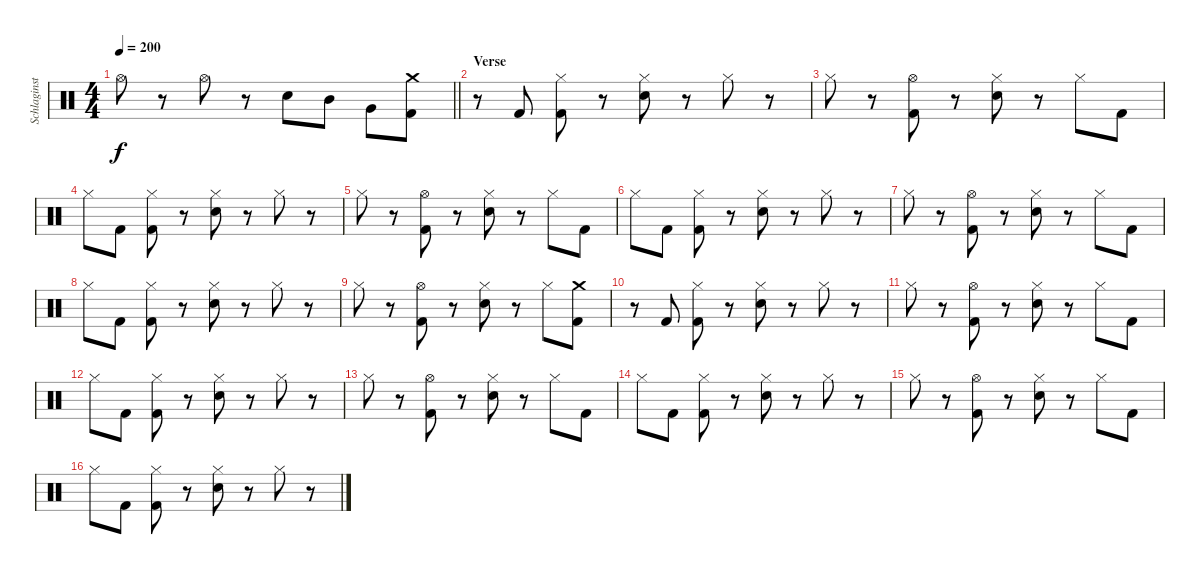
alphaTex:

\track ("Schlaginstrumente - Auswahl" "Schlaginst") {instrument percussion}
\staff {score}
\articulation defaults
\ts (4 4)
\tempo 200
\clef neutral
\barLineRight lightlight
\ks c "Hi-Hat (open)".8{dy f}
r.8 "Hi-Hat (open)".8 r.8 "Electric Snare (hit)".8 "Mid Tom (hit)".8 "Very Low Tom (hit)".8 ("Crash medium (hit)" "Kick (hit) 2").8 |
\section ("" "Verse")
r.8 "Kick (hit) 2".8 ("Hi-Hat (closed)" "Kick (hit) 2").8 r.8 ("Hi-Hat (closed)" "Electric Snare (hit)").8 r.8 "Hi-Hat (closed)".8 r.8 |
"Hi-Hat (closed)".8 r.8 ("Hi-Hat (open)" "Kick (hit) 2").8 r.8 ("Hi-Hat (closed)" "Electric Snare (hit)").8 r.8 "Hi-Hat (closed)".8 "Kick (hit) 2".8 |
"Hi-Hat (closed)".8 "Kick (hit) 2".8 ("Hi-Hat (closed)" "Kick (hit) 2").8 r.8 ("Hi-Hat (closed)" "Electric Snare (hit)").8 r.8 "Hi-Hat (closed)".8 r.8 |
"Hi-Hat (closed)".8 r.8 ("Hi-Hat (open)" "Kick (hit) 2").8 r.8 ("Hi-Hat (closed)" "Electric Snare (hit)").8 r.8 "Hi-Hat (closed)".8 "Kick (hit) 2".8 |
"Hi-Hat (closed)".8 "Kick (hit) 2".8 ("Hi-Hat (closed)" "Kick (hit) 2").8 r.8 ("Hi-Hat (closed)" "Electric Snare (hit)").8 r.8 "Hi-Hat (closed)".8 r.8 |
"Hi-Hat (closed)".8 r.8 ("Hi-Hat (open)" "Kick (hit) 2").8 r.8 ("Hi-Hat (closed)" "Electric Snare (hit)").8 r.8 "Hi-Hat (closed)".8 "Kick (hit) 2".8 |
"Hi-Hat (closed)".8 "Kick (hit) 2".8 ("Hi-Hat (closed)" "Kick (hit) 2").8 r.8 ("Hi-Hat (closed)" "Electric Snare (hit)").8 r.8 "Hi-Hat (closed)".8 r.8 |
"Hi-Hat (closed)".8 r.8 ("Hi-Hat (open)" "Kick (hit) 2").8 r.8 ("Hi-Hat (closed)" "Electric Snare (hit)").8 r.8 "Hi-Hat (closed)".8 ("Crash medium (hit)" "Kick (hit) 2").8 |
r.8 "Kick (hit) 2".8 ("Hi-Hat (closed)" "Kick (hit) 2").8 r.8 ("Hi-Hat (closed)" "Electric Snare (hit)").8 r.8 "Hi-Hat (closed)".8 r.8 |
"Hi-Hat (closed)".8 r.8 ("Hi-Hat (open)" "Kick (hit) 2").8 r.8 ("Hi-Hat (closed)" "Electric Snare (hit)").8 r.8 "Hi-Hat (closed)".8 "Kick (hit) 2".8 |
"Hi-Hat (closed)".8 "Kick (hit) 2".8 ("Hi-Hat (closed)" "Kick (hit) 2").8 r.8 ("Hi-Hat (closed)" "Electric Snare (hit)").8 r.8 "Hi-Hat (closed)".8 r.8 |
"Hi-Hat (closed)".8 r.8 ("Hi-Hat (open)" "Kick (hit) 2").8 r.8 ("Hi-Hat (closed)" "Electric Snare (hit)").8 r.8 "Hi-Hat (closed)".8 "Kick (hit) 2".8 |
"Hi-Hat (closed)".8 "Kick (hit) 2".8 ("Hi-Hat (closed)" "Kick (hit) 2").8 r.8 ("Hi-Hat (closed)" "Electric Snare (hit)").8 r.8 "Hi-Hat (closed)".8 r.8 |
"Hi-Hat (closed)".8 r.8 ("Hi-Hat (open)" "Kick (hit) 2").8 r.8 ("Hi-Hat (closed)" "Electric Snare (hit)").8 r.8 "Hi-Hat (closed)".8 "Kick (hit) 2".8 |
"Hi-Hat (closed)".8 "Kick (hit) 2".8 ("Hi-Hat (closed)" "Kick (hit) 2").8 r.8 ("Hi-Hat (closed)" "Electric Snare (hit)").8 r.8 "Hi-Hat (closed)".8 r.8
